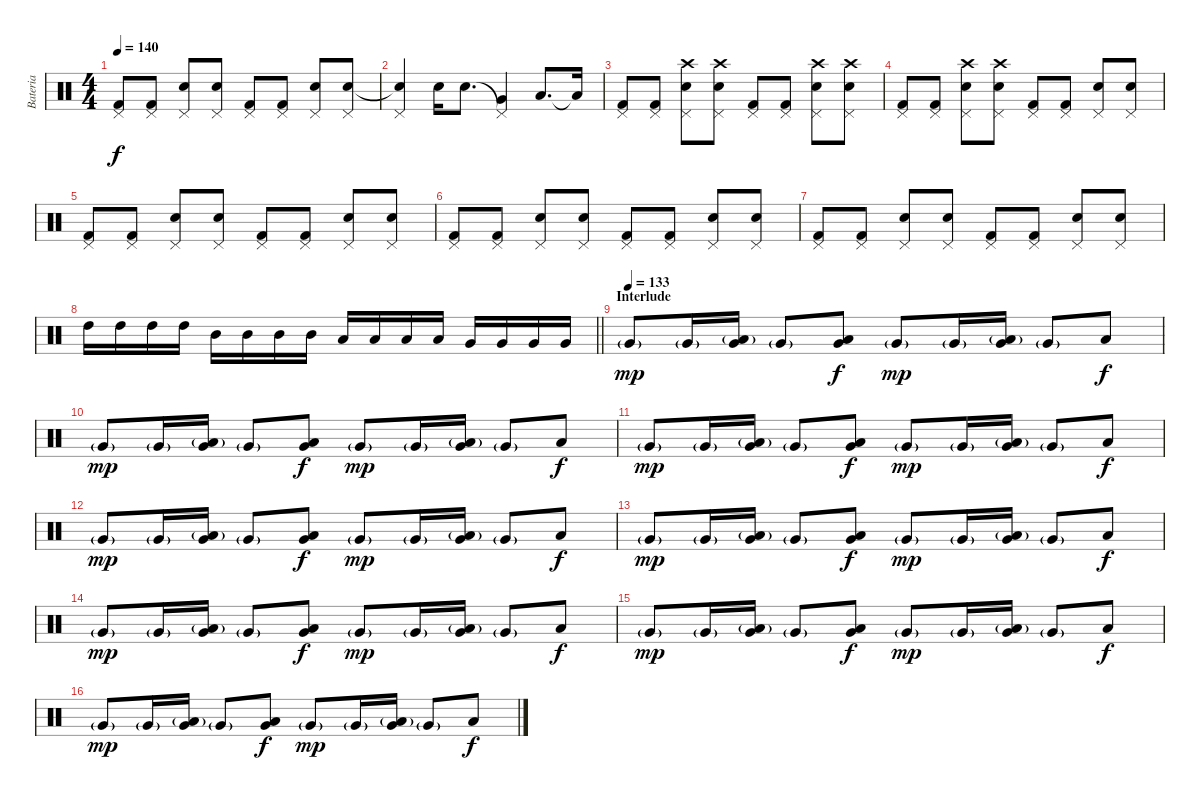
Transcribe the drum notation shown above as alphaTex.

\track ("Bateria" "Bateria") {instrument percussion}
\staff {score}
\articulation defaults
\ts (4 4)
\tempo 140
\clef neutral
\ks c
("Pedal Hi-Hat (hit)" "Kick (hit) 2").8{dy f} ("Pedal Hi-Hat (hit)" "Kick (hit) 2").8 ("Pedal Hi-Hat (hit)" "Electric Snare (hit)").8 ("Pedal Hi-Hat (hit)" "Electric Snare (hit)").8 ("Pedal Hi-Hat (hit)" "Kick (hit) 2").8 ("Pedal Hi-Hat (hit)" "Kick (hit) 2").8 ("Pedal Hi-Hat (hit)" "Electric Snare (hit)").8 ("Pedal Hi-Hat (hit)" "Electric Snare (hit)").8 |
("Pedal Hi-Hat (hit)" "Electric Snare (hit)"{t}).4 "Electric Snare (hit)".16 "Electric Snare (hit)".8{d} ("Pedal Hi-Hat (hit)"{t} "Very Low Tom (hit)").4 "Low Floor Tom (hit)".8{d} "Low Floor Tom (hit)"{t}.16 |
("Pedal Hi-Hat (hit)" "Kick (hit) 2").8 ("Pedal Hi-Hat (hit)" "Kick (hit) 2").8 ("Crash high (hit)" "Pedal Hi-Hat (hit)" "Electric Snare (hit)").8 ("Crash high (hit)" "Pedal Hi-Hat (hit)" "Electric Snare (hit)").8 ("Pedal Hi-Hat (hit)" "Kick (hit) 2").8 ("Pedal Hi-Hat (hit)" "Kick (hit) 2").8 ("Crash high (hit)" "Pedal Hi-Hat (hit)" "Electric Snare (hit)").8 ("Crash high (hit)" "Pedal Hi-Hat (hit)" "Electric Snare (hit)").8 |
("Pedal Hi-Hat (hit)" "Kick (hit) 2").8 ("Pedal Hi-Hat (hit)" "Kick (hit) 2").8 ("Crash high (hit)" "Pedal Hi-Hat (hit)" "Electric Snare (hit)").8 ("Crash high (hit)" "Pedal Hi-Hat (hit)" "Electric Snare (hit)").8 ("Pedal Hi-Hat (hit)" "Kick (hit) 2").8 ("Pedal Hi-Hat (hit)" "Kick (hit) 2").8 ("Pedal Hi-Hat (hit)" "Electric Snare (hit)").8 ("Pedal Hi-Hat (hit)" "Electric Snare (hit)").8 |
("Pedal Hi-Hat (hit)" "Kick (hit) 2").8 ("Pedal Hi-Hat (hit)" "Kick (hit) 2").8 ("Pedal Hi-Hat (hit)" "Electric Snare (hit)").8 ("Pedal Hi-Hat (hit)" "Electric Snare (hit)").8 ("Pedal Hi-Hat (hit)" "Kick (hit) 2").8 ("Pedal Hi-Hat (hit)" "Kick (hit) 2").8 ("Pedal Hi-Hat (hit)" "Electric Snare (hit)").8 ("Pedal Hi-Hat (hit)" "Electric Snare (hit)").8 |
("Pedal Hi-Hat (hit)" "Kick (hit) 2").8 ("Pedal Hi-Hat (hit)" "Kick (hit) 2").8 ("Pedal Hi-Hat (hit)" "Electric Snare (hit)").8 ("Pedal Hi-Hat (hit)" "Electric Snare (hit)").8 ("Pedal Hi-Hat (hit)" "Kick (hit) 2").8 ("Pedal Hi-Hat (hit)" "Kick (hit) 2").8 ("Pedal Hi-Hat (hit)" "Electric Snare (hit)").8 ("Pedal Hi-Hat (hit)" "Electric Snare (hit)").8 |
("Pedal Hi-Hat (hit)" "Kick (hit) 2").8 ("Pedal Hi-Hat (hit)" "Kick (hit) 2").8 ("Pedal Hi-Hat (hit)" "Electric Snare (hit)").8 ("Pedal Hi-Hat (hit)" "Electric Snare (hit)").8 ("Pedal Hi-Hat (hit)" "Kick (hit) 2").8 ("Pedal Hi-Hat (hit)" "Kick (hit) 2").8 ("Pedal Hi-Hat (hit)" "Electric Snare (hit)").8 ("Pedal Hi-Hat (hit)" "Electric Snare (hit)").8 |
\barLineRight lightlight "High Tom (hit)".16 "High Tom (hit)".16 "High Tom (hit)".16 "High Tom (hit)".16 "Mid Tom (hit)".16 "Mid Tom (hit)".16 "Mid Tom (hit)".16 "Mid Tom (hit)".16 "Low Tom (hit)".16 "Low Tom (hit)".16 "Low Tom (hit)".16 "Low Tom (hit)".16 "Very Low Tom (hit)".16 "Very Low Tom (hit)".16 "Very Low Tom (hit)".16 "Very Low Tom (hit)".16
|
\section ("" "Interlude")
\tempo (133)
"Very Low Tom (hit)"{g}.8{dy mp} "Very Low Tom (hit)"{g}.16 ("Low Floor Tom (hit)"{g} "Very Low Tom (hit)").16 "Very Low Tom (hit)"{g}.8 ("Low Floor Tom (hit)" "Very Low Tom (hit)").8{dy f} "Very Low Tom (hit)"{g}.8{dy mp} "Very Low Tom (hit)"{g}.16 ("Low Floor Tom (hit)"{g} "Very Low Tom (hit)").16 "Very Low Tom (hit)"{g}.8 "Low Floor Tom (hit)".8{dy f} |
"Very Low Tom (hit)"{g}.8{dy mp} "Very Low Tom (hit)"{g}.16 ("Low Floor Tom (hit)"{g} "Very Low Tom (hit)").16 "Very Low Tom (hit)"{g}.8 ("Low Floor Tom (hit)" "Very Low Tom (hit)").8{dy f} "Very Low Tom (hit)"{g}.8{dy mp} "Very Low Tom (hit)"{g}.16 ("Low Floor Tom (hit)"{g} "Very Low Tom (hit)").16 "Very Low Tom (hit)"{g}.8 "Low Floor Tom (hit)".8{dy f} |
"Very Low Tom (hit)"{g}.8{dy mp} "Very Low Tom (hit)"{g}.16 ("Low Floor Tom (hit)"{g} "Very Low Tom (hit)").16 "Very Low Tom (hit)"{g}.8 ("Low Floor Tom (hit)" "Very Low Tom (hit)").8{dy f} "Very Low Tom (hit)"{g}.8{dy mp} "Very Low Tom (hit)"{g}.16 ("Low Floor Tom (hit)"{g} "Very Low Tom (hit)").16 "Very Low Tom (hit)"{g}.8 "Low Floor Tom (hit)".8{dy f} |
"Very Low Tom (hit)"{g}.8{dy mp} "Very Low Tom (hit)"{g}.16 ("Low Floor Tom (hit)"{g} "Very Low Tom (hit)").16 "Very Low Tom (hit)"{g}.8 ("Low Floor Tom (hit)" "Very Low Tom (hit)").8{dy f} "Very Low Tom (hit)"{g}.8{dy mp} "Very Low Tom (hit)"{g}.16 ("Low Floor Tom (hit)"{g} "Very Low Tom (hit)").16 "Very Low Tom (hit)"{g}.8 "Low Floor Tom (hit)".8{dy f} |
"Very Low Tom (hit)"{g}.8{dy mp} "Very Low Tom (hit)"{g}.16 ("Low Floor Tom (hit)"{g} "Very Low Tom (hit)").16 "Very Low Tom (hit)"{g}.8 ("Low Floor Tom (hit)" "Very Low Tom (hit)").8{dy f} "Very Low Tom (hit)"{g}.8{dy mp} "Very Low Tom (hit)"{g}.16 ("Low Floor Tom (hit)"{g} "Very Low Tom (hit)").16 "Very Low Tom (hit)"{g}.8 "Low Floor Tom (hit)".8{dy f} |
"Very Low Tom (hit)"{g}.8{dy mp} "Very Low Tom (hit)"{g}.16 ("Low Floor Tom (hit)"{g} "Very Low Tom (hit)").16 "Very Low Tom (hit)"{g}.8 ("Low Floor Tom (hit)" "Very Low Tom (hit)").8{dy f} "Very Low Tom (hit)"{g}.8{dy mp} "Very Low Tom (hit)"{g}.16 ("Low Floor Tom (hit)"{g} "Very Low Tom (hit)").16 "Very Low Tom (hit)"{g}.8 "Low Floor Tom (hit)".8{dy f} |
"Very Low Tom (hit)"{g}.8{dy mp} "Very Low Tom (hit)"{g}.16 ("Low Floor Tom (hit)"{g} "Very Low Tom (hit)").16 "Very Low Tom (hit)"{g}.8 ("Low Floor Tom (hit)" "Very Low Tom (hit)").8{dy f} "Very Low Tom (hit)"{g}.8{dy mp} "Very Low Tom (hit)"{g}.16 ("Low Floor Tom (hit)"{g} "Very Low Tom (hit)").16 "Very Low Tom (hit)"{g}.8 "Low Floor Tom (hit)".8{dy f} |
"Very Low Tom (hit)"{g}.8{dy mp} "Very Low Tom (hit)"{g}.16 ("Low Floor Tom (hit)"{g} "Very Low Tom (hit)").16 "Very Low Tom (hit)"{g}.8 ("Low Floor Tom (hit)" "Very Low Tom (hit)").8{dy f} "Very Low Tom (hit)"{g}.8{dy mp} "Very Low Tom (hit)"{g}.16 ("Low Floor Tom (hit)"{g} "Very Low Tom (hit)").16 "Very Low Tom (hit)"{g}.8 "Low Floor Tom (hit)".8{dy f}
